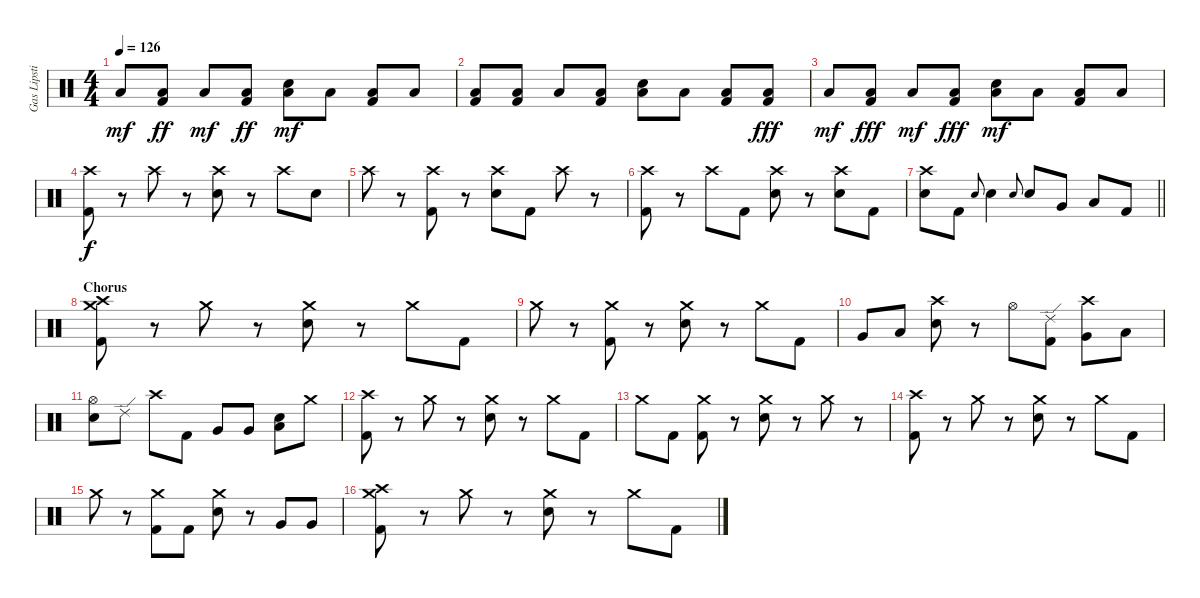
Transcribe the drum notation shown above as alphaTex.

\track ("Gas Lipstick (Drums)" "Gas Lipsti") {instrument percussion}
\staff {score}
\articulation defaults
\ts (4 4)
\tempo 126
\clef neutral
\ks c "Low Floor Tom (hit)".8{dy mf}
("Low Floor Tom (hit)" "Kick (hit) 2").8{dy ff} "Low Floor Tom (hit)".8{dy mf} ("Low Floor Tom (hit)" "Kick (hit) 2").8{dy ff} ("Low Floor Tom (hit)" "Snare (hit) 2").8{dy mf} "Low Floor Tom (hit)".8 ("Low Floor Tom (hit)" "Kick (hit) 2").8 "Low Floor Tom (hit)".8 |
("Low Floor Tom (hit)" "Kick (hit) 2").8 ("Low Floor Tom (hit)" "Kick (hit) 2").8 "Low Floor Tom (hit)".8 ("Low Floor Tom (hit)" "Kick (hit) 2").8 ("Low Floor Tom (hit)" "Snare (hit) 2").8 "Low Floor Tom (hit)".8 ("Low Floor Tom (hit)" "Kick (hit) 2").8 ("Low Floor Tom (hit)" "Kick (hit) 2").8{dy fff} |
"Low Floor Tom (hit)".8{dy mf} ("Low Floor Tom (hit)" "Kick (hit) 2").8{dy fff} "Low Floor Tom (hit)".8{dy mf} ("Low Floor Tom (hit)" "Kick (hit) 2").8{dy fff} ("Low Floor Tom (hit)" "Snare (hit) 2").8{dy mf} "Low Floor Tom (hit)".8 ("Low Floor Tom (hit)" "Kick (hit) 2").8 "Low Floor Tom (hit)".8 |
("Crash high (hit)" "Kick (hit) 2").8{dy f} r.8 "Crash high (hit)".8 r.8 ("Crash high (hit)" "Snare (hit) 2").8 r.8 "Crash high (hit)".8 "Snare (hit) 2".8 |
"Crash high (hit)".8 r.8 ("Crash high (hit)" "Kick (hit) 2").8 r.8 ("Crash high (hit)" "Snare (hit) 2").8 "Kick (hit) 2".8 "Crash high (hit)".8 r.8 |
("Crash high (hit)" "Kick (hit) 2").8 r.8 "Crash high (hit)".8 "Kick (hit) 2".8 ("Crash high (hit)" "Snare (hit) 2").8 r.8 ("Crash high (hit)" "Snare (hit) 2").8 "Kick (hit) 2".8 |
\barLineRight lightlight
("Crash high (hit)" "Snare (hit) 2").8 "Kick (hit) 2".8 "Snare (hit) 2".8{gr onbeat} "Snare (hit) 2".4 "Snare (hit) 2".8{gr onbeat} "Snare (hit) 2".8 "Very Low Tom (hit)".8 "Low Floor Tom (hit)".8 "Kick (hit) 2".8 |
\section ("" "Chorus")
("Crash high (hit)" "Crash medium (hit)" "Kick (hit) 2").8 r.8 "Crash medium (hit)".8 r.8 ("Crash medium (hit)" "Snare (hit) 2").8 r.8 "Crash medium (hit)".8 "Kick (hit) 2".8 |
"Crash medium (hit)".8 r.8 ("Crash medium (hit)" "Kick (hit) 2").8 r.8 ("Crash medium (hit)" "Snare (hit) 2").8 r.8 "Crash medium (hit)".8 "Kick (hit) 2".8 |
"Very Low Tom (hit)".8 "Low Floor Tom (hit)".8 ("Crash high (hit)" "Snare (hit) 2").8 r.8 "Hi-Hat (open)".8 ("Ride (edge) 2" "Kick (hit) 2").8 ("Crash high (hit)" "Very Low Tom (hit)").8 "Low Floor Tom (hit)".8 |
("Hi-Hat (open)" "Snare (hit) 2").8 "Ride (edge) 2".8 "Crash high (hit)".8 "Kick (hit) 2".8 "Very Low Tom (hit)".8 "Very Low Tom (hit)".8 ("Low Floor Tom (hit)" "Snare (hit) 2").8 "Crash medium (hit)".8 |
("Crash high (hit)" "Kick (hit) 2").8 r.8 "Crash medium (hit)".8 r.8 ("Crash medium (hit)" "Snare (hit) 2").8 r.8 "Crash medium (hit)".8 "Kick (hit) 2".8 |
"Crash medium (hit)".8 "Kick (hit) 2".8 ("Crash medium (hit)" "Kick (hit) 2").8 r.8 ("Crash medium (hit)" "Snare (hit) 2").8 r.8 "Crash medium (hit)".8 r.8 |
("Crash high (hit)" "Kick (hit) 2").8 r.8 "Crash medium (hit)".8 r.8 ("Crash medium (hit)" "Snare (hit) 2").8 r.8 "Crash medium (hit)".8 "Kick (hit) 2".8 |
"Crash medium (hit)".8 r.8 ("Crash medium (hit)" "Kick (hit) 2").8 "Kick (hit) 2".8 ("Crash medium (hit)" "Snare (hit) 2").8 r.8 "Very Low Tom (hit)".8 "Very Low Tom (hit)".8 |
("Crash high (hit)" "Crash medium (hit)" "Kick (hit) 2").8 r.8 "Crash medium (hit)".8 r.8 ("Crash medium (hit)" "Snare (hit) 2").8 r.8 "Crash medium (hit)".8 "Kick (hit) 2".8
